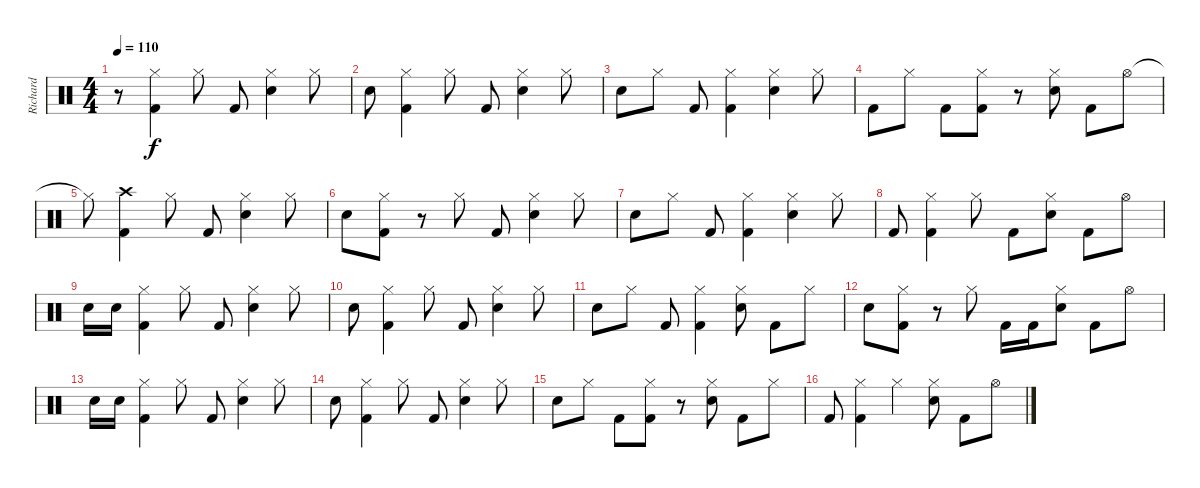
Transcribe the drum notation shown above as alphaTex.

\track ("Richard" "Richard") {instrument percussion}
\staff {score}
\articulation defaults
\ts (4 4)
\tempo 110
\tempo 140
\tempo 110
\clef neutral
\ks c
r.8{dy f} ("Hi-Hat (closed)" "Kick (hit) 2").4 "Hi-Hat (closed)".8 "Kick (hit) 2".8 ("Hi-Hat (closed)" "Snare (hit) 2").4 "Hi-Hat (closed)".8 |
"Snare (hit) 2".8 ("Hi-Hat (closed)" "Kick (hit) 2").4 "Hi-Hat (closed)".8 "Kick (hit) 2".8 ("Hi-Hat (closed)" "Snare (hit) 2").4 "Hi-Hat (closed)".8 |
"Snare (hit) 2".8 "Hi-Hat (closed)".8 "Kick (hit) 2".8 ("Hi-Hat (closed)" "Kick (hit) 2").4 ("Hi-Hat (closed)" "Snare (hit) 2").4 "Hi-Hat (closed)".8 |
"Kick (hit) 2".8 "Hi-Hat (closed)".8 "Kick (hit) 2".8 ("Hi-Hat (closed)" "Kick (hit) 2").8 r.8 ("Hi-Hat (closed)" "Snare (hit) 2").8 "Kick (hit) 2".8 "Hi-Hat (open)".8 |
"Hi-Hat (closed)"{t}.8 ("Crash high (hit)" "Kick (hit) 2").4 "Hi-Hat (closed)".8 "Kick (hit) 2".8 ("Hi-Hat (closed)" "Snare (hit) 2").4 "Hi-Hat (closed)".8 |
"Snare (hit) 2".8 ("Hi-Hat (closed)" "Kick (hit) 2").8 r.8 "Hi-Hat (closed)".8 "Kick (hit) 2".8 ("Hi-Hat (closed)" "Snare (hit) 2").4 "Hi-Hat (closed)".8 |
"Snare (hit) 2".8 "Hi-Hat (closed)".8 "Kick (hit) 2".8 ("Hi-Hat (closed)" "Kick (hit) 2").4 ("Hi-Hat (closed)" "Snare (hit) 2").4 "Hi-Hat (closed)".8 |
"Kick (hit) 2".8 ("Hi-Hat (closed)" "Kick (hit) 2").4 "Hi-Hat (closed)".8 "Kick (hit) 2".8 ("Hi-Hat (closed)" "Snare (hit) 2").8 "Kick (hit) 2".8 "Hi-Hat (open)".8 |
"Snare (hit) 2".16 "Snare (hit) 2".16 ("Hi-Hat (closed)" "Kick (hit) 2").4 "Hi-Hat (closed)".8 "Kick (hit) 2".8 ("Hi-Hat (closed)" "Snare (hit) 2").4 "Hi-Hat (closed)".8 |
"Snare (hit) 2".8 ("Hi-Hat (closed)" "Kick (hit) 2").4 "Hi-Hat (closed)".8 "Kick (hit) 2".8 ("Hi-Hat (closed)" "Snare (hit) 2").4 "Hi-Hat (closed)".8 |
"Snare (hit) 2".8 "Hi-Hat (closed)".8 "Kick (hit) 2".8 ("Hi-Hat (closed)" "Kick (hit) 2").4 ("Hi-Hat (closed)" "Snare (hit) 2").8 "Kick (hit) 2".8 "Hi-Hat (closed)".8 |
"Snare (hit) 2".8 ("Hi-Hat (closed)" "Kick (hit) 2").8 r.8 "Hi-Hat (closed)".8 "Kick (hit) 2".16 "Kick (hit) 2".16 ("Hi-Hat (closed)" "Snare (hit) 2").8 "Kick (hit) 2".8 "Hi-Hat (open)".8 |
"Snare (hit) 2".16 "Snare (hit) 2".16 ("Hi-Hat (closed)" "Kick (hit) 2").4 "Hi-Hat (closed)".8 "Kick (hit) 2".8 ("Hi-Hat (closed)" "Snare (hit) 2").4 "Hi-Hat (closed)".8 |
"Snare (hit) 2".8 ("Hi-Hat (closed)" "Kick (hit) 2").4 "Hi-Hat (closed)".8 "Kick (hit) 2".8 ("Hi-Hat (closed)" "Snare (hit) 2").4 "Hi-Hat (closed)".8 |
"Snare (hit) 2".8 "Hi-Hat (closed)".8 "Kick (hit) 2".8 ("Hi-Hat (closed)" "Kick (hit) 2").8 r.8 ("Hi-Hat (closed)" "Snare (hit) 2").8 "Kick (hit) 2".8 "Hi-Hat (closed)".8 |
"Kick (hit) 2".8 ("Hi-Hat (closed)" "Kick (hit) 2").4 "Hi-Hat (closed)".4 ("Hi-Hat (closed)" "Snare (hit) 2").8 "Kick (hit) 2".8 "Hi-Hat (open)".8
